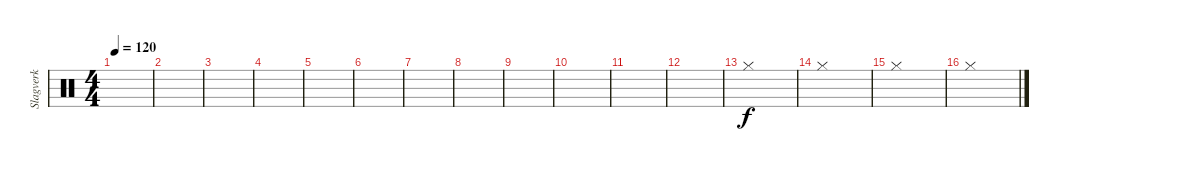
\track ("Slagverk" "Slagverk") {instrument percussion}
\staff {score}
\articulation defaults
\ts (4 4)
\tempo 120
\clef neutral
\ks c
|
|
|
|
|
|
|
|
|
|
|
|
"Hi-Hat (closed)".1 |
"Hi-Hat (closed)".1 |
"Hi-Hat (closed)".1 |
"Hi-Hat (closed)".1
